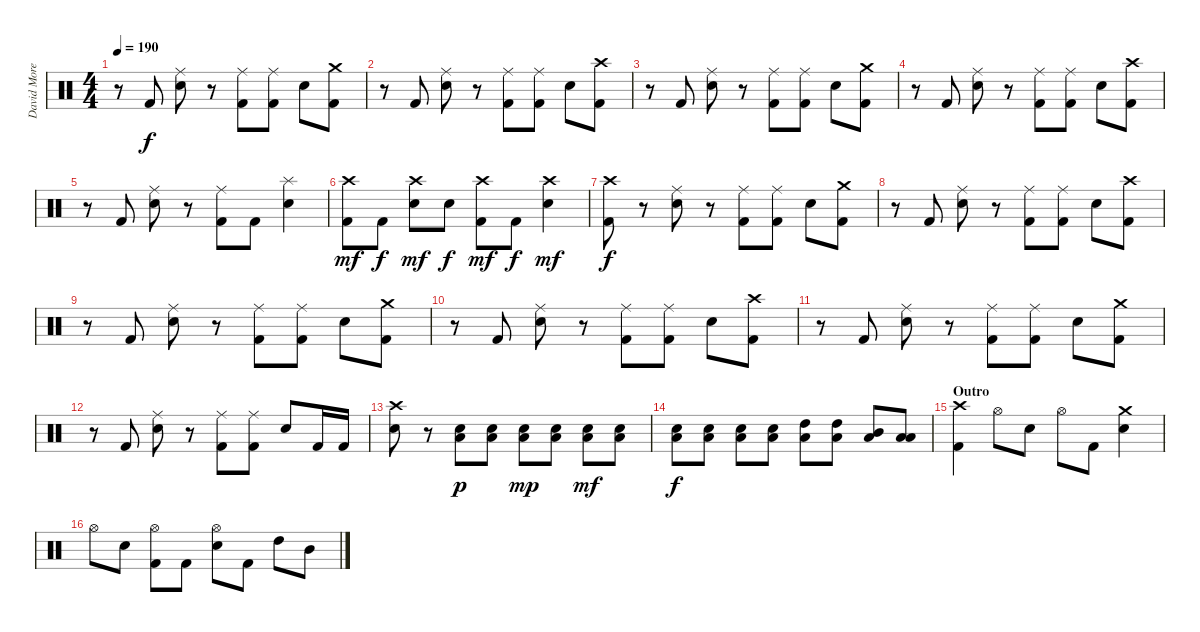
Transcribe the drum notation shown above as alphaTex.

\track ("David Moreno" "David More") {instrument percussion}
\staff {score}
\articulation defaults
\ts (4 4)
\tempo 190
\clef neutral
\ks c
r.8{dy f} "Kick (hit) 2".8 ("Ride (middle)" "Snare (hit) 2").8 r.8 ("Ride (middle)" "Kick (hit) 2").8 ("Ride (middle)" "Kick (hit) 2").8 "Snare (hit) 2".8 ("Crash medium (hit)" "Kick (hit) 2").8 |
r.8 "Kick (hit) 2".8 ("Ride (middle)" "Snare (hit) 2").8 r.8 ("Ride (middle)" "Kick (hit) 2").8 ("Ride (middle)" "Kick (hit) 2").8 "Snare (hit) 2".8 ("Crash high (hit)" "Kick (hit) 2").8 |
r.8 "Kick (hit) 2".8 ("Ride (middle)" "Snare (hit) 2").8 r.8 ("Ride (middle)" "Kick (hit) 2").8 ("Ride (middle)" "Kick (hit) 2").8 "Snare (hit) 2".8 ("Crash medium (hit)" "Kick (hit) 2").8 |
r.8 "Kick (hit) 2".8 ("Ride (middle)" "Snare (hit) 2").8 r.8 ("Ride (middle)" "Kick (hit) 2").8 ("Ride (middle)" "Kick (hit) 2").8 "Snare (hit) 2".8 ("Crash high (hit)" "Kick (hit) 2").8 |
r.8 "Kick (hit) 2".8 ("Ride (middle)" "Snare (hit) 2").8 r.8 ("Ride (middle)" "Kick (hit) 2").8 "Kick (hit) 2".8 ("Splash (hit)" "Snare (hit) 2").4 |
("Crash high (hit)" "Kick (hit) 2").8{dy mf} "Kick (hit) 2".8{dy f} ("Crash high (hit)" "Snare (hit) 2").8{dy mf} "Snare (hit) 2".8{dy f} ("Crash high (hit)" "Kick (hit) 2").8{dy mf} "Kick (hit) 2".8{dy f} ("Crash high (hit)" "Snare (hit) 2").4{dy mf} |
("Crash high (hit)" "Kick (hit) 2").8{dy f} r.8 ("Ride (middle)" "Snare (hit) 2").8 r.8 ("Ride (middle)" "Kick (hit) 2").8 ("Ride (middle)" "Kick (hit) 2").8 "Snare (hit) 2".8 ("Crash medium (hit)" "Kick (hit) 2").8 |
r.8 "Kick (hit) 2".8 ("Ride (middle)" "Snare (hit) 2").8 r.8 ("Ride (middle)" "Kick (hit) 2").8 ("Ride (middle)" "Kick (hit) 2").8 "Snare (hit) 2".8 ("Crash high (hit)" "Kick (hit) 2").8 |
r.8 "Kick (hit) 2".8 ("Ride (middle)" "Snare (hit) 2").8 r.8 ("Ride (middle)" "Kick (hit) 2").8 ("Ride (middle)" "Kick (hit) 2").8 "Snare (hit) 2".8 ("Crash medium (hit)" "Kick (hit) 2").8 |
r.8 "Kick (hit) 2".8 ("Ride (middle)" "Snare (hit) 2").8 r.8 ("Ride (middle)" "Kick (hit) 2").8 ("Ride (middle)" "Kick (hit) 2").8 "Snare (hit) 2".8 ("Crash high (hit)" "Kick (hit) 2").8 |
r.8 "Kick (hit) 2".8 ("Ride (middle)" "Snare (hit) 2").8 r.8 ("Ride (middle)" "Kick (hit) 2").8 ("Ride (middle)" "Kick (hit) 2").8 "Snare (hit) 2".8 ("Crash medium (hit)" "Kick (hit) 2").8 |
r.8 "Kick (hit) 2".8 ("Ride (middle)" "Snare (hit) 2").8 r.8 ("Ride (middle)" "Kick (hit) 2").8 ("Ride (middle)" "Kick (hit) 2").8 "Snare (hit) 2".8 "Kick (hit) 2".16 "Kick (hit) 2".16 |
("Crash high (hit)" "Snare (hit) 2").8 r.8 ("Snare (hit) 2" "Low Floor Tom (hit)").8{dy p} ("Snare (hit) 2" "Low Floor Tom (hit)").8 ("Snare (hit) 2" "Low Floor Tom (hit)").8{dy mp} ("Snare (hit) 2" "Low Floor Tom (hit)").8 ("Snare (hit) 2" "Low Floor Tom (hit)").8{dy mf} ("Snare (hit) 2" "Low Floor Tom (hit)").8 |
("Snare (hit) 2" "Low Floor Tom (hit)").8{dy f} ("Snare (hit) 2" "Low Floor Tom (hit)").8 ("Snare (hit) 2" "Low Floor Tom (hit)").8 ("Snare (hit) 2" "Low Floor Tom (hit)").8 ("High Tom (hit)" "Low Floor Tom (hit)").8 ("High Tom (hit)" "Low Floor Tom (hit)").8 ("Mid Tom (hit)" "Low Floor Tom (hit)").8 ("Low Tom (hit)" "Low Floor Tom (hit)").8 |
\section ("" "Outro")
("Crash high (hit)" "Kick (hit) 2").4 "Hi-Hat (open)".8 "Snare (hit) 2".8 "Hi-Hat (open)".8 "Kick (hit) 2".8 ("Crash medium (hit)" "Snare (hit) 2").4 |
"Hi-Hat (open)".8 "Snare (hit) 2".8 ("Hi-Hat (open)" "Kick (hit) 2").8 "Kick (hit) 2".8 ("Hi-Hat (open)" "Snare (hit) 2").8 "Kick (hit) 2".8 "High Tom (hit)".8 "Mid Tom (hit)".8
